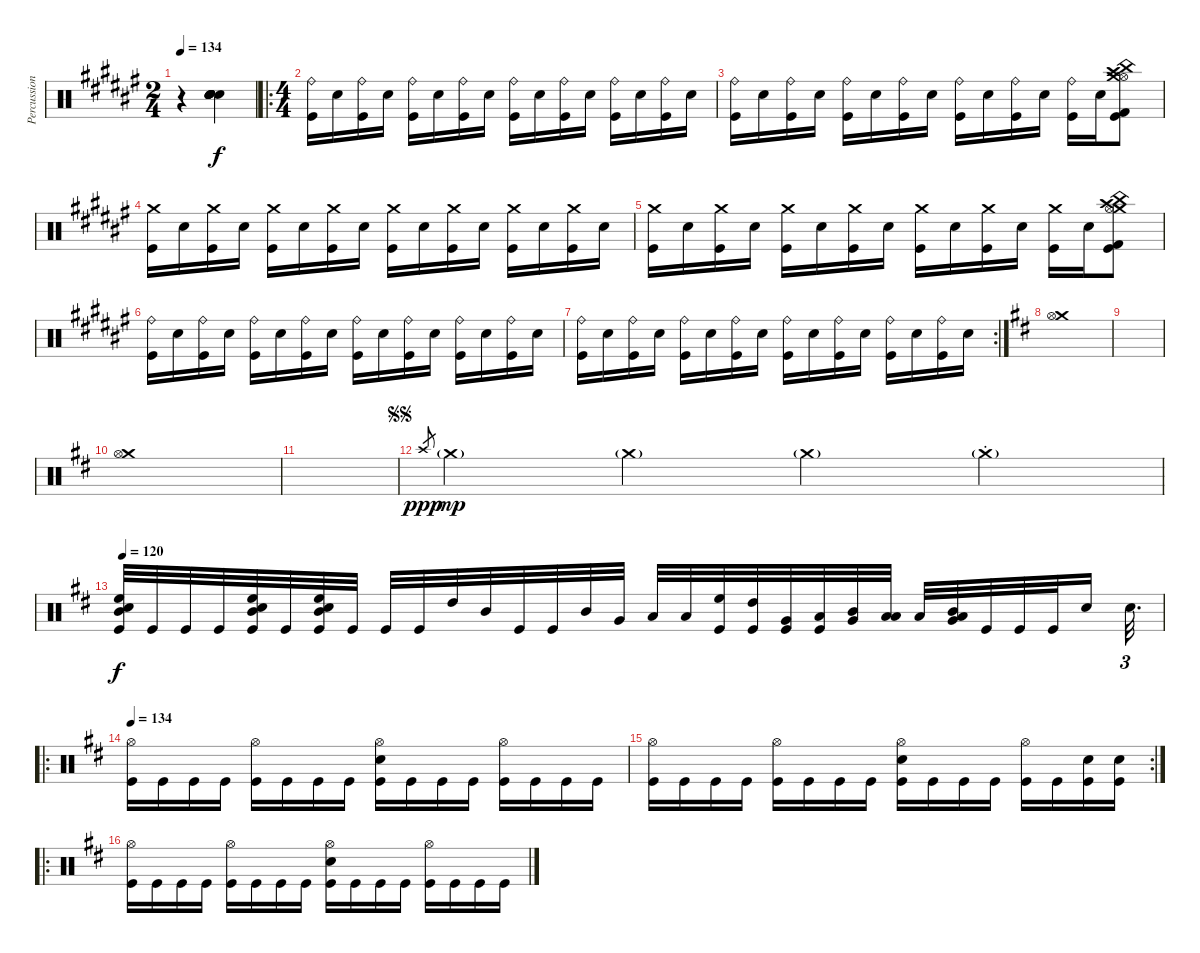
\track ("Percussion" "Percussion") {instrument percussion}
\staff {score}
\articulation defaults
\ts (2 4)
\tempo 134
\clef neutral
\ks f#
r.4{dy f} ("Electric Snare (hit)" "Electric Snare (hit)" "Electric Snare (hit)" "Electric Snare (hit)" "Snare (hit) 2" "Snare (hit) 2").4{volume 16 balance 11} |
\ro
\ts (4 4)
("Ride (bell)" "Kick (hit)").16 "Electric Snare (hit)".16 ("Ride (bell)" "Kick (hit)").16 "Electric Snare (hit)".16 ("Ride (bell)" "Kick (hit)").16 "Electric Snare (hit)".16 ("Ride (bell)" "Kick (hit)").16 "Electric Snare (hit)".16 ("Ride (bell)" "Kick (hit)").16 "Electric Snare (hit)".16 ("Ride (bell)" "Kick (hit)").16 "Electric Snare (hit)".16 ("Ride (bell)" "Kick (hit)").16 "Electric Snare (hit)".16 ("Ride (bell)" "Kick (hit)").16 "Electric Snare (hit)".16 |
("Ride (bell)" "Kick (hit)").16 "Electric Snare (hit)".16 ("Ride (bell)" "Kick (hit)").16 "Electric Snare (hit)".16 ("Ride (bell)" "Kick (hit)").16 "Electric Snare (hit)".16 ("Ride (bell)" "Kick (hit)").16 "Electric Snare (hit)".16 ("Ride (bell)" "Kick (hit)").16 "Electric Snare (hit)".16 ("Ride (bell)" "Kick (hit)").16 "Electric Snare (hit)".16 ("Ride (bell)" "Kick (hit)").16 "Electric Snare (hit)".16 ("Hi-Hat (open)" "China (hit)" "Crash medium (hit)" "Kick (hit) 2" "Crash high (hit)" "Kick (hit)").8 |
("Crash medium (hit)" "Kick (hit)").16 "Electric Snare (hit)".16 ("Crash medium (hit)" "Kick (hit)").16 "Electric Snare (hit)".16 ("Crash medium (hit)" "Kick (hit)").16 "Electric Snare (hit)".16 ("Crash medium (hit)" "Kick (hit)").16 "Electric Snare (hit)".16 ("Crash medium (hit)" "Kick (hit)").16 "Electric Snare (hit)".16 ("Crash medium (hit)" "Kick (hit)").16 "Electric Snare (hit)".16 ("Crash medium (hit)" "Kick (hit)").16 "Electric Snare (hit)".16 ("Crash medium (hit)" "Kick (hit)").16 "Electric Snare (hit)".16 |
("Crash medium (hit)" "Kick (hit)").16 "Electric Snare (hit)".16 ("Crash medium (hit)" "Kick (hit)").16 "Electric Snare (hit)".16 ("Crash medium (hit)" "Kick (hit)").16 "Electric Snare (hit)".16 ("Crash medium (hit)" "Kick (hit)").16 "Electric Snare (hit)".16 ("Crash medium (hit)" "Kick (hit)").16 "Electric Snare (hit)".16 ("Crash medium (hit)" "Kick (hit)").16 "Electric Snare (hit)".16 ("Crash medium (hit)" "Kick (hit)").16 "Electric Snare (hit)".16 ("China (hit)" "Crash high (hit)" "Crash medium (hit)" "Kick (hit) 2" "Hi-Hat (open)" "Kick (hit)").8 |
("Ride (bell)" "Kick (hit)").16 "Electric Snare (hit)".16 ("Ride (bell)" "Kick (hit)").16 "Electric Snare (hit)".16 ("Ride (bell)" "Kick (hit)").16 "Electric Snare (hit)".16 ("Ride (bell)" "Kick (hit)").16 "Electric Snare (hit)".16 ("Ride (bell)" "Kick (hit)").16 "Electric Snare (hit)".16 ("Ride (bell)" "Kick (hit)").16 "Electric Snare (hit)".16 ("Ride (bell)" "Kick (hit)").16 "Electric Snare (hit)".16 ("Ride (bell)" "Kick (hit)").16 "Electric Snare (hit)".16 |
\rc 2
("Ride (bell)" "Kick (hit)").16 "Electric Snare (hit)".16 ("Ride (bell)" "Kick (hit)").16 "Electric Snare (hit)".16 ("Ride (bell)" "Kick (hit)").16 "Electric Snare (hit)".16 ("Ride (bell)" "Kick (hit)").16 "Electric Snare (hit)".16 ("Ride (bell)" "Kick (hit)").16 "Electric Snare (hit)".16 ("Ride (bell)" "Kick (hit)").16 "Electric Snare (hit)".16 ("Ride (bell)" "Kick (hit)").16 "Electric Snare (hit)".16 ("Ride (bell)" "Kick (hit)").16 "Electric Snare (hit)".16 |
\ks d
("Crash medium (hit)" "Hi-Hat (open)").1 |
|
("Crash medium (hit)" "Hi-Hat (open)").1 |
|
\jump segnosegno "Crash high (hit)"{sl}.8{gr dy ppp} "Crash medium (hit)"{g}.4{dy mp} "Crash medium (hit)"{g}.4 "Crash medium (hit)"{g}.4 "Crash medium (hit)"{g st}.4
|
\tempo 120
("High Floor Tom (hit)" "Mid Tom (hit)" "Electric Snare (hit)" "Kick (hit)").32{dy f} "Kick (hit)".32 "Kick (hit)".32 "Kick (hit)".32 ("High Floor Tom (hit)" "Mid Tom (hit)" "Electric Snare (hit)" "Kick (hit)").32 "Kick (hit)".32 ("High Floor Tom (hit)" "Mid Tom (hit)" "Electric Snare (hit)" "Kick (hit)").32 "Kick (hit)".32 "Kick (hit)".32 "Kick (hit)".32 "High Tom (hit)".32 "Mid Tom (hit)".32 "Kick (hit)".32 "Kick (hit)".32 "Mid Tom (hit)".32 "Very Low Tom (hit)".32 "Low Tom (hit)".32 "Low Floor Tom (hit)".32 ("High Floor Tom (hit)" "Kick (hit)").32 ("High Tom (hit)" "Kick (hit)").32 ("Very Low Tom (hit)" "Kick (hit)").32 ("Low Floor Tom (hit)" "Kick (hit)").32 ("Mid Tom (hit)" "Very Low Tom (hit)").32 ("Low Floor Tom (hit)" "Low Tom (hit)").32 "Low Floor Tom (hit)".32 ("Very Low Tom (hit)" "Mid Tom (hit)" "Low Tom (hit)").32 "Kick (hit)".32 "Kick (hit)".32 "Kick (hit)".32 "Electric Snare (hit)".16{beam splitsecondary} "Electric Snare (hit)".32{d tu (3 2)} |
\ro
\tempo 134
("Hi-Hat (open)" "Kick (hit)").16 "Kick (hit)".16 "Kick (hit)".16 "Kick (hit)".16 ("Hi-Hat (open)" "Kick (hit)").16 "Kick (hit)".16 "Kick (hit)".16 "Kick (hit)".16 ("Hi-Hat (open)" "Electric Snare (hit)" "Kick (hit)").16 "Kick (hit)".16 "Kick (hit)".16 "Kick (hit)".16 ("Hi-Hat (open)" "Kick (hit)").16 "Kick (hit)".16 "Kick (hit)".16 "Kick (hit)".16 |
\rc 2
("Hi-Hat (open)" "Kick (hit)").16 "Kick (hit)".16 "Kick (hit)".16 "Kick (hit)".16 ("Hi-Hat (open)" "Kick (hit)").16 "Kick (hit)".16 "Kick (hit)".16 "Kick (hit)".16 ("Hi-Hat (open)" "Electric Snare (hit)" "Kick (hit)").16 "Kick (hit)".16 "Kick (hit)".16 "Kick (hit)".16 ("Hi-Hat (open)" "Kick (hit)").16 "Kick (hit)".16 ("Electric Snare (hit)" "Kick (hit)").16 ("Electric Snare (hit)" "Kick (hit)").16 |
\ro
("Hi-Hat (open)" "Kick (hit)").16 "Kick (hit)".16 "Kick (hit)".16 "Kick (hit)".16 ("Hi-Hat (open)" "Kick (hit)").16 "Kick (hit)".16 "Kick (hit)".16 "Kick (hit)".16 ("Hi-Hat (open)" "Electric Snare (hit)" "Kick (hit)").16 "Kick (hit)".16 "Kick (hit)".16 "Kick (hit)".16 ("Hi-Hat (open)" "Kick (hit)").16 "Kick (hit)".16 "Kick (hit)".16 "Kick (hit)".16
